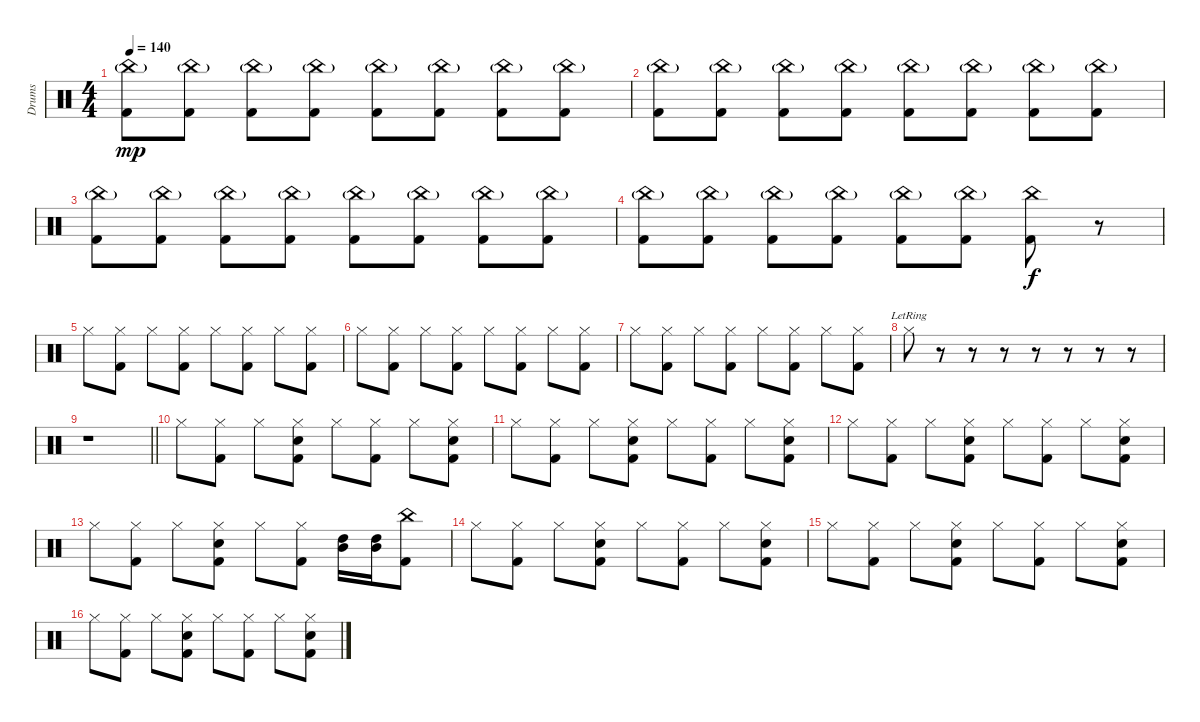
\track ("Drums" "Drums") {instrument percussion}
\staff {score}
\articulation defaults
\ts (4 4)
\tempo 140
\clef neutral
\ks c
("China (hit)"{g} "Kick (hit) 2").8{dy mp} ("China (hit)"{g} "Kick (hit) 2").8 ("China (hit)"{g} "Kick (hit) 2").8 ("China (hit)"{g} "Kick (hit) 2").8 ("China (hit)"{g} "Kick (hit) 2").8 ("China (hit)"{g} "Kick (hit) 2").8 ("China (hit)"{g} "Kick (hit) 2").8 ("China (hit)"{g} "Kick (hit) 2").8 |
("China (hit)"{g} "Kick (hit) 2").8 ("China (hit)"{g} "Kick (hit) 2").8 ("China (hit)"{g} "Kick (hit) 2").8 ("China (hit)"{g} "Kick (hit) 2").8 ("China (hit)"{g} "Kick (hit) 2").8 ("China (hit)"{g} "Kick (hit) 2").8 ("China (hit)"{g} "Kick (hit) 2").8 ("China (hit)"{g} "Kick (hit) 2").8 |
("China (hit)"{g} "Kick (hit) 2").8 ("China (hit)"{g} "Kick (hit) 2").8 ("China (hit)"{g} "Kick (hit) 2").8 ("China (hit)"{g} "Kick (hit) 2").8 ("China (hit)"{g} "Kick (hit) 2").8 ("China (hit)"{g} "Kick (hit) 2").8 ("China (hit)"{g} "Kick (hit) 2").8 ("China (hit)"{g} "Kick (hit) 2").8 |
("China (hit)"{g} "Kick (hit) 2").8 ("China (hit)"{g} "Kick (hit) 2").8 ("China (hit)"{g} "Kick (hit) 2").8 ("China (hit)"{g} "Kick (hit) 2").8 ("China (hit)"{g} "Kick (hit) 2").8 ("China (hit)"{g} "Kick (hit) 2").8 ("China (hit)" "Kick (hit) 2").8{dy f} r.8 |
"Hi-Hat (closed)".8 ("Hi-Hat (closed)" "Kick (hit) 2").8 "Hi-Hat (closed)".8 ("Hi-Hat (closed)" "Kick (hit) 2").8 "Hi-Hat (closed)".8 ("Hi-Hat (closed)" "Kick (hit) 2").8 "Hi-Hat (closed)".8 ("Hi-Hat (closed)" "Kick (hit) 2").8 |
"Hi-Hat (closed)".8 ("Hi-Hat (closed)" "Kick (hit) 2").8 "Hi-Hat (closed)".8 ("Hi-Hat (closed)" "Kick (hit) 2").8 "Hi-Hat (closed)".8 ("Hi-Hat (closed)" "Kick (hit) 2").8 "Hi-Hat (closed)".8 ("Hi-Hat (closed)" "Kick (hit) 2").8 |
"Hi-Hat (closed)".8 ("Hi-Hat (closed)" "Kick (hit) 2").8 "Hi-Hat (closed)".8 ("Hi-Hat (closed)" "Kick (hit) 2").8 "Hi-Hat (closed)".8 ("Hi-Hat (closed)" "Kick (hit) 2").8 "Hi-Hat (closed)".8 ("Hi-Hat (closed)" "Kick (hit) 2").8 |
"Hi-Hat (closed)"{lr}.8 r.8 r.8 r.8 r.8 r.8 r.8 r.8 |
\barLineRight lightlight
r.1 |
"Hi-Hat (closed)".8 ("Hi-Hat (closed)" "Kick (hit) 2").8 "Hi-Hat (closed)".8 ("Hi-Hat (closed)" "Snare (hit) 2" "Kick (hit) 2").8 "Hi-Hat (closed)".8 ("Hi-Hat (closed)" "Kick (hit) 2").8 "Hi-Hat (closed)".8 ("Hi-Hat (closed)" "Snare (hit) 2" "Kick (hit) 2").8 |
"Hi-Hat (closed)".8 ("Hi-Hat (closed)" "Kick (hit) 2").8 "Hi-Hat (closed)".8 ("Hi-Hat (closed)" "Snare (hit) 2" "Kick (hit) 2").8 "Hi-Hat (closed)".8 ("Hi-Hat (closed)" "Kick (hit) 2").8 "Hi-Hat (closed)".8 ("Hi-Hat (closed)" "Snare (hit) 2" "Kick (hit) 2").8 |
"Hi-Hat (closed)".8 ("Hi-Hat (closed)" "Kick (hit) 2").8 "Hi-Hat (closed)".8 ("Hi-Hat (closed)" "Snare (hit) 2" "Kick (hit) 2").8 "Hi-Hat (closed)".8 ("Hi-Hat (closed)" "Kick (hit) 2").8 "Hi-Hat (closed)".8 ("Hi-Hat (closed)" "Snare (hit) 2" "Kick (hit) 2").8 |
"Hi-Hat (closed)".8 ("Hi-Hat (closed)" "Kick (hit) 2").8 "Hi-Hat (closed)".8 ("Hi-Hat (closed)" "Snare (hit) 2" "Kick (hit) 2").8 "Hi-Hat (closed)".8 ("Hi-Hat (closed)" "Kick (hit) 2").8 ("Mid Tom (hit)" "High Tom (hit)").16 ("Mid Tom (hit)" "High Tom (hit)").16 ("China (hit)" "Kick (hit) 2").8 |
"Hi-Hat (closed)".8 ("Hi-Hat (closed)" "Kick (hit) 2").8 "Hi-Hat (closed)".8 ("Hi-Hat (closed)" "Snare (hit) 2" "Kick (hit) 2").8 "Hi-Hat (closed)".8 ("Hi-Hat (closed)" "Kick (hit) 2").8 "Hi-Hat (closed)".8 ("Hi-Hat (closed)" "Snare (hit) 2" "Kick (hit) 2").8 |
"Hi-Hat (closed)".8 ("Hi-Hat (closed)" "Kick (hit) 2").8 "Hi-Hat (closed)".8 ("Hi-Hat (closed)" "Snare (hit) 2" "Kick (hit) 2").8 "Hi-Hat (closed)".8 ("Hi-Hat (closed)" "Kick (hit) 2").8 "Hi-Hat (closed)".8 ("Hi-Hat (closed)" "Snare (hit) 2" "Kick (hit) 2").8 |
"Hi-Hat (closed)".8 ("Hi-Hat (closed)" "Kick (hit) 2").8 "Hi-Hat (closed)".8 ("Hi-Hat (closed)" "Snare (hit) 2" "Kick (hit) 2").8 "Hi-Hat (closed)".8 ("Hi-Hat (closed)" "Kick (hit) 2").8 "Hi-Hat (closed)".8 ("Hi-Hat (closed)" "Snare (hit) 2" "Kick (hit) 2").8
